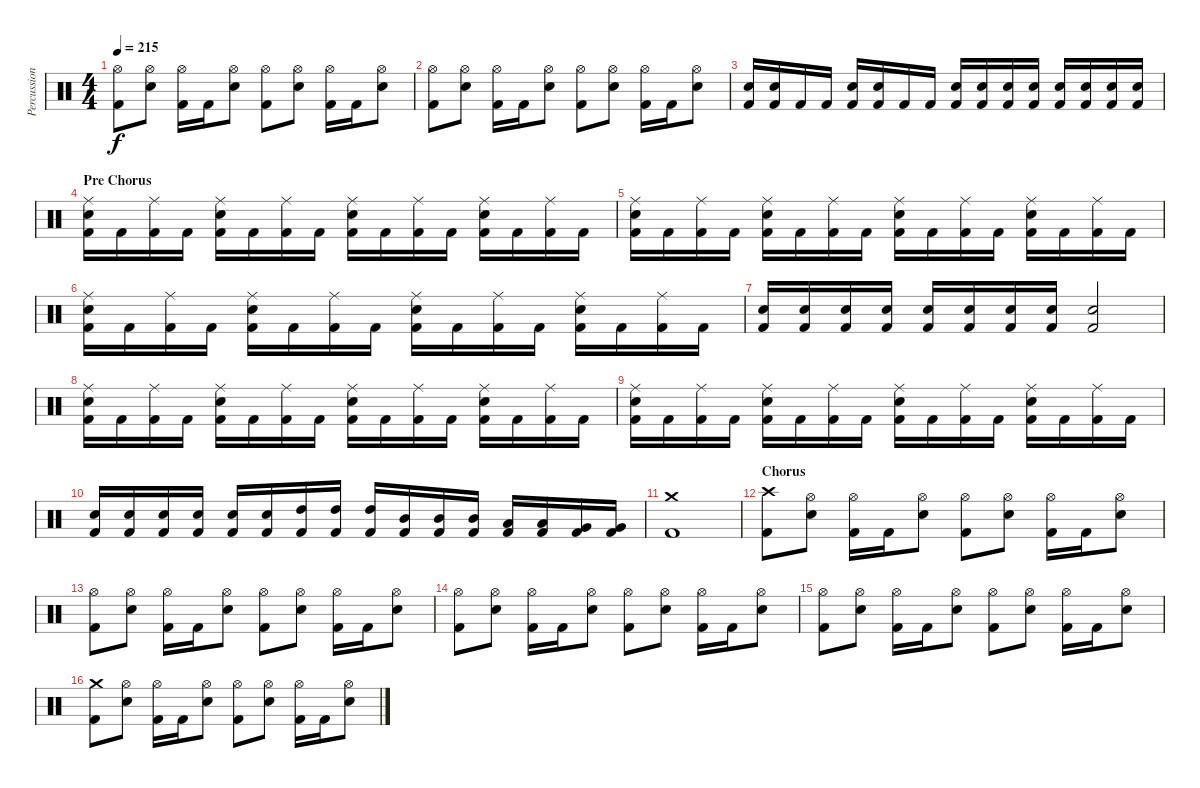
\track ("Percussion" "Percussion") {instrument percussion}
\staff {score}
\articulation defaults
\ts (4 4)
\tempo 215
\clef neutral
\ks c
("Hi-Hat (open)" "Kick (hit) 2").8{dy f} ("Hi-Hat (open)" "Snare (hit) 2").8 ("Hi-Hat (open)" "Kick (hit) 2").16 "Kick (hit) 2".16 ("Hi-Hat (open)" "Snare (hit) 2").8 ("Hi-Hat (open)" "Kick (hit) 2").8 ("Hi-Hat (open)" "Snare (hit) 2").8 ("Hi-Hat (open)" "Kick (hit) 2").16 "Kick (hit) 2".16 ("Hi-Hat (open)" "Snare (hit) 2").8 |
("Hi-Hat (open)" "Kick (hit) 2").8 ("Hi-Hat (open)" "Snare (hit) 2").8 ("Hi-Hat (open)" "Kick (hit) 2").16 "Kick (hit) 2".16 ("Hi-Hat (open)" "Snare (hit) 2").8 ("Hi-Hat (open)" "Kick (hit) 2").8 ("Hi-Hat (open)" "Snare (hit) 2").8 ("Hi-Hat (open)" "Kick (hit) 2").16 "Kick (hit) 2".16 ("Hi-Hat (open)" "Snare (hit) 2").8 |
("Snare (hit) 2" "Kick (hit) 2").16 ("Snare (hit) 2" "Kick (hit) 2").16 "Kick (hit) 2".16 "Kick (hit) 2".16 ("Snare (hit) 2" "Kick (hit) 2").16 ("Snare (hit) 2" "Kick (hit) 2").16 "Kick (hit) 2".16 "Kick (hit) 2".16 ("Snare (hit) 2" "Kick (hit) 2").16 ("Snare (hit) 2" "Kick (hit) 2").16 ("Snare (hit) 2" "Kick (hit) 2").16 ("Snare (hit) 2" "Kick (hit) 2").16 ("Snare (hit) 2" "Kick (hit) 2").16 ("Snare (hit) 2" "Kick (hit) 2").16 ("Snare (hit) 2" "Kick (hit) 2").16 ("Snare (hit) 2" "Kick (hit) 2").16 |
\section ("" "Pre Chorus")
("Ride (middle)" "Snare (hit) 2" "Kick (hit) 2").16 "Kick (hit) 2".16 ("Ride (middle)" "Kick (hit) 2").16 "Kick (hit) 2".16 ("Ride (middle)" "Snare (hit) 2" "Kick (hit) 2").16 "Kick (hit) 2".16 ("Ride (middle)" "Kick (hit) 2").16 "Kick (hit) 2".16 ("Ride (middle)" "Snare (hit) 2" "Kick (hit) 2").16 "Kick (hit) 2".16 ("Ride (middle)" "Kick (hit) 2").16 "Kick (hit) 2".16 ("Ride (middle)" "Snare (hit) 2" "Kick (hit) 2").16 "Kick (hit) 2".16 ("Ride (middle)" "Kick (hit) 2").16 "Kick (hit) 2".16 |
("Ride (middle)" "Snare (hit) 2" "Kick (hit) 2").16 "Kick (hit) 2".16 ("Ride (middle)" "Kick (hit) 2").16 "Kick (hit) 2".16 ("Ride (middle)" "Snare (hit) 2" "Kick (hit) 2").16 "Kick (hit) 2".16 ("Ride (middle)" "Kick (hit) 2").16 "Kick (hit) 2".16 ("Ride (middle)" "Snare (hit) 2" "Kick (hit) 2").16 "Kick (hit) 2".16 ("Ride (middle)" "Kick (hit) 2").16 "Kick (hit) 2".16 ("Ride (middle)" "Snare (hit) 2" "Kick (hit) 2").16 "Kick (hit) 2".16 ("Ride (middle)" "Kick (hit) 2").16 "Kick (hit) 2".16 |
("Ride (middle)" "Snare (hit) 2" "Kick (hit) 2").16 "Kick (hit) 2".16 ("Ride (middle)" "Kick (hit) 2").16 "Kick (hit) 2".16 ("Ride (middle)" "Snare (hit) 2" "Kick (hit) 2").16 "Kick (hit) 2".16 ("Ride (middle)" "Kick (hit) 2").16 "Kick (hit) 2".16 ("Ride (middle)" "Snare (hit) 2" "Kick (hit) 2").16 "Kick (hit) 2".16 ("Ride (middle)" "Kick (hit) 2").16 "Kick (hit) 2".16 ("Ride (middle)" "Snare (hit) 2" "Kick (hit) 2").16 "Kick (hit) 2".16 ("Ride (middle)" "Kick (hit) 2").16 "Kick (hit) 2".16 |
("Snare (hit) 2" "Kick (hit) 2").16 ("Snare (hit) 2" "Kick (hit) 2").16 ("Snare (hit) 2" "Kick (hit) 2").16 ("Snare (hit) 2" "Kick (hit) 2").16 ("Snare (hit) 2" "Kick (hit) 2").16 ("Snare (hit) 2" "Kick (hit) 2").16 ("Snare (hit) 2" "Kick (hit) 2").16 ("Snare (hit) 2" "Kick (hit) 2").16 ("Snare (hit) 2" "Kick (hit) 2").2 |
("Ride (middle)" "Snare (hit) 2" "Kick (hit) 2").16 "Kick (hit) 2".16 ("Ride (middle)" "Kick (hit) 2").16 "Kick (hit) 2".16 ("Ride (middle)" "Snare (hit) 2" "Kick (hit) 2").16 "Kick (hit) 2".16 ("Ride (middle)" "Kick (hit) 2").16 "Kick (hit) 2".16 ("Ride (middle)" "Snare (hit) 2" "Kick (hit) 2").16 "Kick (hit) 2".16 ("Ride (middle)" "Kick (hit) 2").16 "Kick (hit) 2".16 ("Ride (middle)" "Snare (hit) 2" "Kick (hit) 2").16 "Kick (hit) 2".16 ("Ride (middle)" "Kick (hit) 2").16 "Kick (hit) 2".16 |
("Ride (middle)" "Snare (hit) 2" "Kick (hit) 2").16 "Kick (hit) 2".16 ("Ride (middle)" "Kick (hit) 2").16 "Kick (hit) 2".16 ("Ride (middle)" "Snare (hit) 2" "Kick (hit) 2").16 "Kick (hit) 2".16 ("Ride (middle)" "Kick (hit) 2").16 "Kick (hit) 2".16 ("Ride (middle)" "Snare (hit) 2" "Kick (hit) 2").16 "Kick (hit) 2".16 ("Ride (middle)" "Kick (hit) 2").16 "Kick (hit) 2".16 ("Ride (middle)" "Snare (hit) 2" "Kick (hit) 2").16 "Kick (hit) 2".16 ("Ride (middle)" "Kick (hit) 2").16 "Kick (hit) 2".16 |
("Snare (hit) 2" "Kick (hit) 2").16 ("Snare (hit) 2" "Kick (hit) 2").16 ("Snare (hit) 2" "Kick (hit) 2").16 ("Snare (hit) 2" "Kick (hit) 2").16 ("Snare (hit) 2" "Kick (hit) 2").16 ("Snare (hit) 2" "Kick (hit) 2").16 ("High Tom (hit)" "Kick (hit) 2").16 ("High Tom (hit)" "Kick (hit) 2").16 ("High Tom (hit)" "Kick (hit) 2").16 ("Mid Tom (hit)" "Kick (hit) 2").16 ("Mid Tom (hit)" "Kick (hit) 2").16 ("Mid Tom (hit)" "Kick (hit) 2").16 ("Low Tom (hit)" "Kick (hit) 2").16 ("Low Tom (hit)" "Kick (hit) 2").16 ("Very Low Tom (hit)" "Kick (hit) 2").16 ("Very Low Tom (hit)" "Kick (hit) 2").16 |
("Crash medium (hit)" "Kick (hit) 2").1 |
\section ("" "Chorus")
("Crash high (hit)" "Kick (hit) 2").8 ("Hi-Hat (open)" "Snare (hit) 2").8 ("Hi-Hat (open)" "Kick (hit) 2").16 "Kick (hit) 2".16 ("Hi-Hat (open)" "Snare (hit) 2").8 ("Hi-Hat (open)" "Kick (hit) 2").8 ("Hi-Hat (open)" "Snare (hit) 2").8 ("Hi-Hat (open)" "Kick (hit) 2").16 "Kick (hit) 2".16 ("Hi-Hat (open)" "Snare (hit) 2").8 |
("Hi-Hat (open)" "Kick (hit) 2").8 ("Hi-Hat (open)" "Snare (hit) 2").8 ("Hi-Hat (open)" "Kick (hit) 2").16 "Kick (hit) 2".16 ("Hi-Hat (open)" "Snare (hit) 2").8 ("Hi-Hat (open)" "Kick (hit) 2").8 ("Hi-Hat (open)" "Snare (hit) 2").8 ("Hi-Hat (open)" "Kick (hit) 2").16 "Kick (hit) 2".16 ("Hi-Hat (open)" "Snare (hit) 2").8 |
("Hi-Hat (open)" "Kick (hit) 2").8 ("Hi-Hat (open)" "Snare (hit) 2").8 ("Hi-Hat (open)" "Kick (hit) 2").16 "Kick (hit) 2".16 ("Hi-Hat (open)" "Snare (hit) 2").8 ("Hi-Hat (open)" "Kick (hit) 2").8 ("Hi-Hat (open)" "Snare (hit) 2").8 ("Hi-Hat (open)" "Kick (hit) 2").16 "Kick (hit) 2".16 ("Hi-Hat (open)" "Snare (hit) 2").8 |
("Hi-Hat (open)" "Kick (hit) 2").8 ("Hi-Hat (open)" "Snare (hit) 2").8 ("Hi-Hat (open)" "Kick (hit) 2").16 "Kick (hit) 2".16 ("Hi-Hat (open)" "Snare (hit) 2").8 ("Hi-Hat (open)" "Kick (hit) 2").8 ("Hi-Hat (open)" "Snare (hit) 2").8 ("Hi-Hat (open)" "Kick (hit) 2").16 "Kick (hit) 2".16 ("Hi-Hat (open)" "Snare (hit) 2").8 |
("Crash medium (hit)" "Kick (hit) 2").8 ("Hi-Hat (open)" "Snare (hit) 2").8 ("Hi-Hat (open)" "Kick (hit) 2").16 "Kick (hit) 2".16 ("Hi-Hat (open)" "Snare (hit) 2").8 ("Hi-Hat (open)" "Kick (hit) 2").8 ("Hi-Hat (open)" "Snare (hit) 2").8 ("Hi-Hat (open)" "Kick (hit) 2").16 "Kick (hit) 2".16 ("Hi-Hat (open)" "Snare (hit) 2").8
